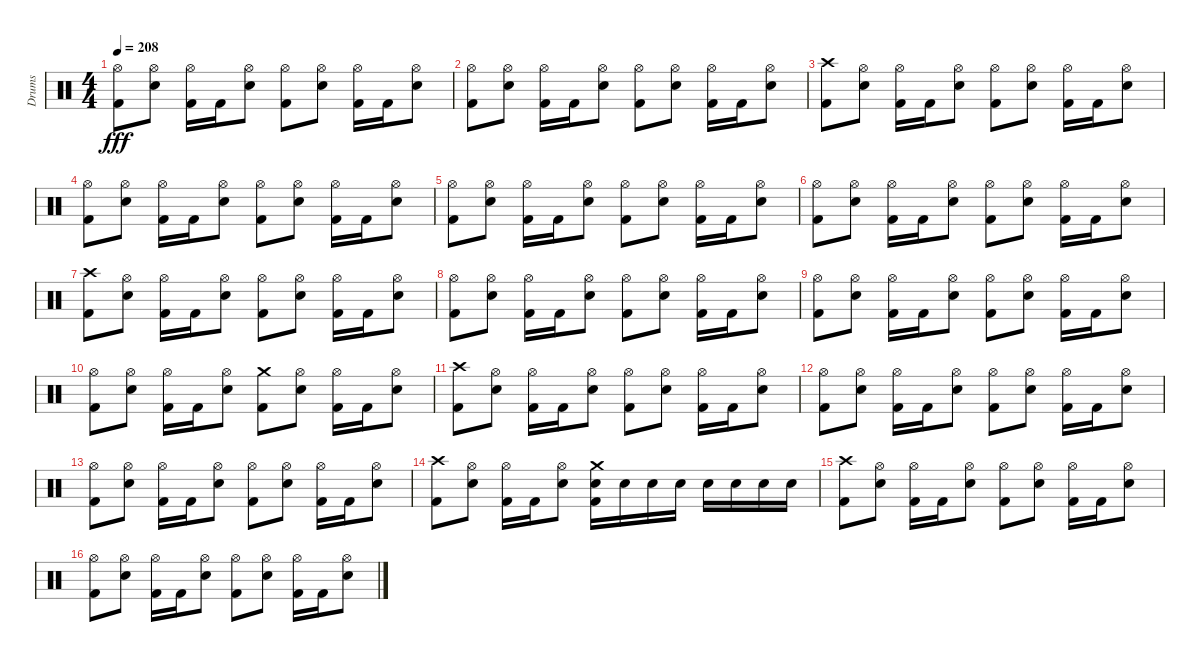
\track ("Drums" "Drums") {instrument percussion}
\staff {score}
\articulation defaults
\ts (4 4)
\tempo 208
\clef neutral
\ks c
("Hi-Hat (open)" "Kick (hit) 2").8{dy fff} ("Electric Snare (hit)" "Hi-Hat (open)").8 ("Hi-Hat (open)" "Kick (hit) 2").16 "Kick (hit) 2".16 ("Electric Snare (hit)" "Hi-Hat (open)").8 ("Hi-Hat (open)" "Kick (hit) 2").8 ("Electric Snare (hit)" "Hi-Hat (open)").8 ("Hi-Hat (open)" "Kick (hit) 2").16 "Kick (hit) 2".16 ("Electric Snare (hit)" "Hi-Hat (open)").8 |
("Hi-Hat (open)" "Kick (hit) 2").8 ("Electric Snare (hit)" "Hi-Hat (open)").8 ("Hi-Hat (open)" "Kick (hit) 2").16 "Kick (hit) 2".16 ("Electric Snare (hit)" "Hi-Hat (open)").8 ("Hi-Hat (open)" "Kick (hit) 2").8 ("Electric Snare (hit)" "Hi-Hat (open)").8 ("Hi-Hat (open)" "Kick (hit) 2").16 "Kick (hit) 2".16 ("Electric Snare (hit)" "Hi-Hat (open)").8 |
("Kick (hit) 2" "Crash high (hit)").8 ("Electric Snare (hit)" "Hi-Hat (open)").8 ("Hi-Hat (open)" "Kick (hit) 2").16 "Kick (hit) 2".16 ("Electric Snare (hit)" "Hi-Hat (open)").8 ("Hi-Hat (open)" "Kick (hit) 2").8 ("Electric Snare (hit)" "Hi-Hat (open)").8 ("Hi-Hat (open)" "Kick (hit) 2").16 "Kick (hit) 2".16 ("Electric Snare (hit)" "Hi-Hat (open)").8 |
("Hi-Hat (open)" "Kick (hit) 2").8 ("Electric Snare (hit)" "Hi-Hat (open)").8 ("Hi-Hat (open)" "Kick (hit) 2").16 "Kick (hit) 2".16 ("Electric Snare (hit)" "Hi-Hat (open)").8 ("Hi-Hat (open)" "Kick (hit) 2").8 ("Electric Snare (hit)" "Hi-Hat (open)").8 ("Hi-Hat (open)" "Kick (hit) 2").16 "Kick (hit) 2".16 ("Electric Snare (hit)" "Hi-Hat (open)").8 |
("Hi-Hat (open)" "Kick (hit) 2").8 ("Electric Snare (hit)" "Hi-Hat (open)").8 ("Hi-Hat (open)" "Kick (hit) 2").16 "Kick (hit) 2".16 ("Electric Snare (hit)" "Hi-Hat (open)").8 ("Hi-Hat (open)" "Kick (hit) 2").8 ("Electric Snare (hit)" "Hi-Hat (open)").8 ("Hi-Hat (open)" "Kick (hit) 2").16 "Kick (hit) 2".16 ("Electric Snare (hit)" "Hi-Hat (open)").8 |
("Hi-Hat (open)" "Kick (hit) 2").8 ("Electric Snare (hit)" "Hi-Hat (open)").8 ("Hi-Hat (open)" "Kick (hit) 2").16 "Kick (hit) 2".16 ("Electric Snare (hit)" "Hi-Hat (open)").8 ("Hi-Hat (open)" "Kick (hit) 2").8 ("Electric Snare (hit)" "Hi-Hat (open)").8 ("Hi-Hat (open)" "Kick (hit) 2").16 "Kick (hit) 2".16 ("Electric Snare (hit)" "Hi-Hat (open)").8 |
("Kick (hit) 2" "Crash high (hit)").8 ("Electric Snare (hit)" "Hi-Hat (open)").8 ("Hi-Hat (open)" "Kick (hit) 2").16 "Kick (hit) 2".16 ("Electric Snare (hit)" "Hi-Hat (open)").8 ("Hi-Hat (open)" "Kick (hit) 2").8 ("Electric Snare (hit)" "Hi-Hat (open)").8 ("Hi-Hat (open)" "Kick (hit) 2").16 "Kick (hit) 2".16 ("Electric Snare (hit)" "Hi-Hat (open)").8 |
("Hi-Hat (open)" "Kick (hit) 2").8 ("Electric Snare (hit)" "Hi-Hat (open)").8 ("Hi-Hat (open)" "Kick (hit) 2").16 "Kick (hit) 2".16 ("Electric Snare (hit)" "Hi-Hat (open)").8 ("Hi-Hat (open)" "Kick (hit) 2").8 ("Electric Snare (hit)" "Hi-Hat (open)").8 ("Hi-Hat (open)" "Kick (hit) 2").16 "Kick (hit) 2".16 ("Electric Snare (hit)" "Hi-Hat (open)").8 |
("Hi-Hat (open)" "Kick (hit) 2").8 ("Electric Snare (hit)" "Hi-Hat (open)").8 ("Hi-Hat (open)" "Kick (hit) 2").16 "Kick (hit) 2".16 ("Electric Snare (hit)" "Hi-Hat (open)").8 ("Hi-Hat (open)" "Kick (hit) 2").8 ("Electric Snare (hit)" "Hi-Hat (open)").8 ("Hi-Hat (open)" "Kick (hit) 2").16 "Kick (hit) 2".16 ("Electric Snare (hit)" "Hi-Hat (open)").8 |
("Hi-Hat (open)" "Kick (hit) 2").8 ("Electric Snare (hit)" "Hi-Hat (open)").8 ("Hi-Hat (open)" "Kick (hit) 2").16 "Kick (hit) 2".16 ("Electric Snare (hit)" "Hi-Hat (open)").8 ("Kick (hit) 2" "Crash medium (hit)").8 ("Electric Snare (hit)" "Hi-Hat (open)").8 ("Hi-Hat (open)" "Kick (hit) 2").16 "Kick (hit) 2".16 ("Electric Snare (hit)" "Hi-Hat (open)").8 |
("Kick (hit) 2" "Crash high (hit)").8 ("Electric Snare (hit)" "Hi-Hat (open)").8 ("Hi-Hat (open)" "Kick (hit) 2").16 "Kick (hit) 2".16 ("Electric Snare (hit)" "Hi-Hat (open)").8 ("Hi-Hat (open)" "Kick (hit) 2").8 ("Electric Snare (hit)" "Hi-Hat (open)").8 ("Hi-Hat (open)" "Kick (hit) 2").16 "Kick (hit) 2".16 ("Electric Snare (hit)" "Hi-Hat (open)").8 |
("Hi-Hat (open)" "Kick (hit) 2").8 ("Electric Snare (hit)" "Hi-Hat (open)").8 ("Hi-Hat (open)" "Kick (hit) 2").16 "Kick (hit) 2".16 ("Electric Snare (hit)" "Hi-Hat (open)").8 ("Hi-Hat (open)" "Kick (hit) 2").8 ("Electric Snare (hit)" "Hi-Hat (open)").8 ("Hi-Hat (open)" "Kick (hit) 2").16 "Kick (hit) 2".16 ("Electric Snare (hit)" "Hi-Hat (open)").8 |
("Hi-Hat (open)" "Kick (hit) 2").8 ("Electric Snare (hit)" "Hi-Hat (open)").8 ("Hi-Hat (open)" "Kick (hit) 2").16 "Kick (hit) 2".16 ("Electric Snare (hit)" "Hi-Hat (open)").8 ("Hi-Hat (open)" "Kick (hit) 2").8 ("Electric Snare (hit)" "Hi-Hat (open)").8 ("Hi-Hat (open)" "Kick (hit) 2").16 "Kick (hit) 2".16 ("Electric Snare (hit)" "Hi-Hat (open)").8 |
("Kick (hit) 2" "Crash high (hit)").8 ("Electric Snare (hit)" "Hi-Hat (open)").8 ("Hi-Hat (open)" "Kick (hit) 2").16 "Kick (hit) 2".16 ("Electric Snare (hit)" "Hi-Hat (open)").8 ("Kick (hit) 2" "Crash medium (hit)" "Electric Snare (hit)").16 "Electric Snare (hit)".16 "Electric Snare (hit)".16 "Electric Snare (hit)".16 "Electric Snare (hit)".16 "Electric Snare (hit)".16 "Electric Snare (hit)".16 "Electric Snare (hit)".16 |
("Kick (hit) 2" "Crash high (hit)").8 ("Electric Snare (hit)" "Hi-Hat (open)").8 ("Hi-Hat (open)" "Kick (hit) 2").16 "Kick (hit) 2".16 ("Electric Snare (hit)" "Hi-Hat (open)").8 ("Hi-Hat (open)" "Kick (hit) 2").8 ("Electric Snare (hit)" "Hi-Hat (open)").8 ("Hi-Hat (open)" "Kick (hit) 2").16 "Kick (hit) 2".16 ("Electric Snare (hit)" "Hi-Hat (open)").8 |
("Hi-Hat (open)" "Kick (hit) 2").8 ("Electric Snare (hit)" "Hi-Hat (open)").8 ("Hi-Hat (open)" "Kick (hit) 2").16 "Kick (hit) 2".16 ("Electric Snare (hit)" "Hi-Hat (open)").8 ("Hi-Hat (open)" "Kick (hit) 2").8 ("Electric Snare (hit)" "Hi-Hat (open)").8 ("Hi-Hat (open)" "Kick (hit) 2").16 "Kick (hit) 2".16 ("Electric Snare (hit)" "Hi-Hat (open)").8
